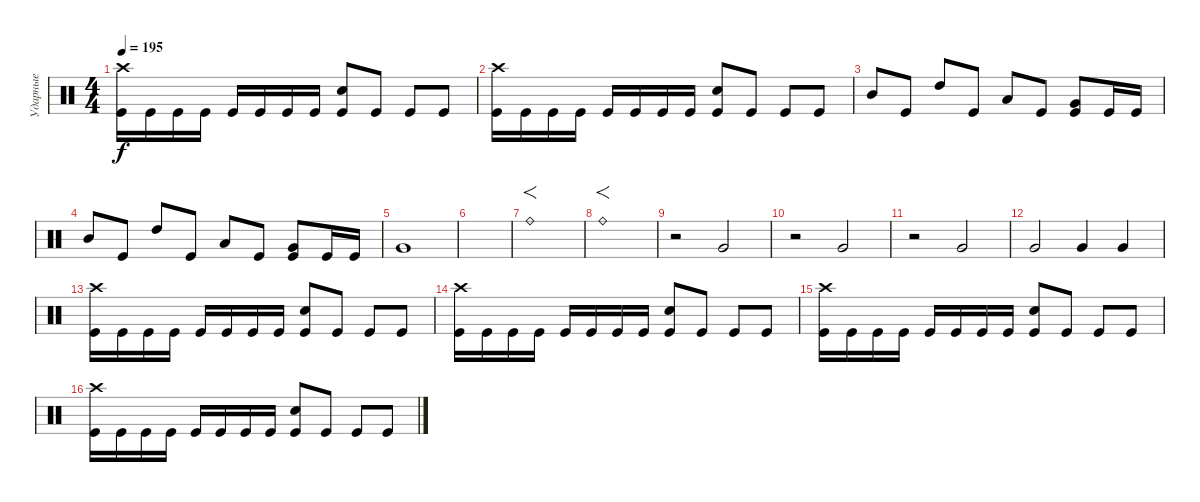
\track ("Ударные" "Ударные") {instrument percussion}
\staff {score}
\articulation defaults
\ts (4 4)
\tempo 195
\clef neutral
\ks c
("Crash high (hit)" "Kick (hit)").16{dy f} "Kick (hit)".16 "Kick (hit)".16 "Kick (hit)".16 "Kick (hit)".16 "Kick (hit)".16 "Kick (hit)".16 "Kick (hit)".16 ("Electric Snare (hit)" "Kick (hit)").8 "Kick (hit)".8 "Kick (hit)".8 "Kick (hit)".8 |
("Crash high (hit)" "Kick (hit)").16 "Kick (hit)".16 "Kick (hit)".16 "Kick (hit)".16 "Kick (hit)".16 "Kick (hit)".16 "Kick (hit)".16 "Kick (hit)".16 ("Electric Snare (hit)" "Kick (hit)").8 "Kick (hit)".8 "Kick (hit)".8 "Kick (hit)".8 |
"Mid Tom (hit)".8 "Kick (hit)".8 "High Tom (hit)".8 "Kick (hit)".8 "Low Tom (hit)".8 "Kick (hit)".8 ("Very Low Tom (hit)" "Kick (hit)").8 "Kick (hit)".16 "Kick (hit)".16 |
"Mid Tom (hit)".8 "Kick (hit)".8 "High Tom (hit)".8 "Kick (hit)".8 "Low Tom (hit)".8 "Kick (hit)".8 ("Very Low Tom (hit)" "Kick (hit)").8 "Kick (hit)".16 "Kick (hit)".16 |
"Very Low Tom (hit)".1 |
|
"Ride (bell)".1{f} |
"Ride (bell)".1{f} |
r.2 "Very Low Tom (hit)".2 |
r.2 "Very Low Tom (hit)".2 |
r.2 "Very Low Tom (hit)".2 |
"Very Low Tom (hit)".2 "Very Low Tom (hit)".4 "Very Low Tom (hit)".4 |
("Crash high (hit)" "Kick (hit)").16 "Kick (hit)".16 "Kick (hit)".16 "Kick (hit)".16 "Kick (hit)".16 "Kick (hit)".16 "Kick (hit)".16 "Kick (hit)".16 ("Electric Snare (hit)" "Kick (hit)").8 "Kick (hit)".8 "Kick (hit)".8 "Kick (hit)".8 |
("Crash high (hit)" "Kick (hit)").16 "Kick (hit)".16 "Kick (hit)".16 "Kick (hit)".16 "Kick (hit)".16 "Kick (hit)".16 "Kick (hit)".16 "Kick (hit)".16 ("Electric Snare (hit)" "Kick (hit)").8 "Kick (hit)".8 "Kick (hit)".8 "Kick (hit)".8 |
("Crash high (hit)" "Kick (hit)").16 "Kick (hit)".16 "Kick (hit)".16 "Kick (hit)".16 "Kick (hit)".16 "Kick (hit)".16 "Kick (hit)".16 "Kick (hit)".16 ("Electric Snare (hit)" "Kick (hit)").8 "Kick (hit)".8 "Kick (hit)".8 "Kick (hit)".8 |
("Crash high (hit)" "Kick (hit)").16 "Kick (hit)".16 "Kick (hit)".16 "Kick (hit)".16 "Kick (hit)".16 "Kick (hit)".16 "Kick (hit)".16 "Kick (hit)".16 ("Electric Snare (hit)" "Kick (hit)").8 "Kick (hit)".8 "Kick (hit)".8 "Kick (hit)".8
